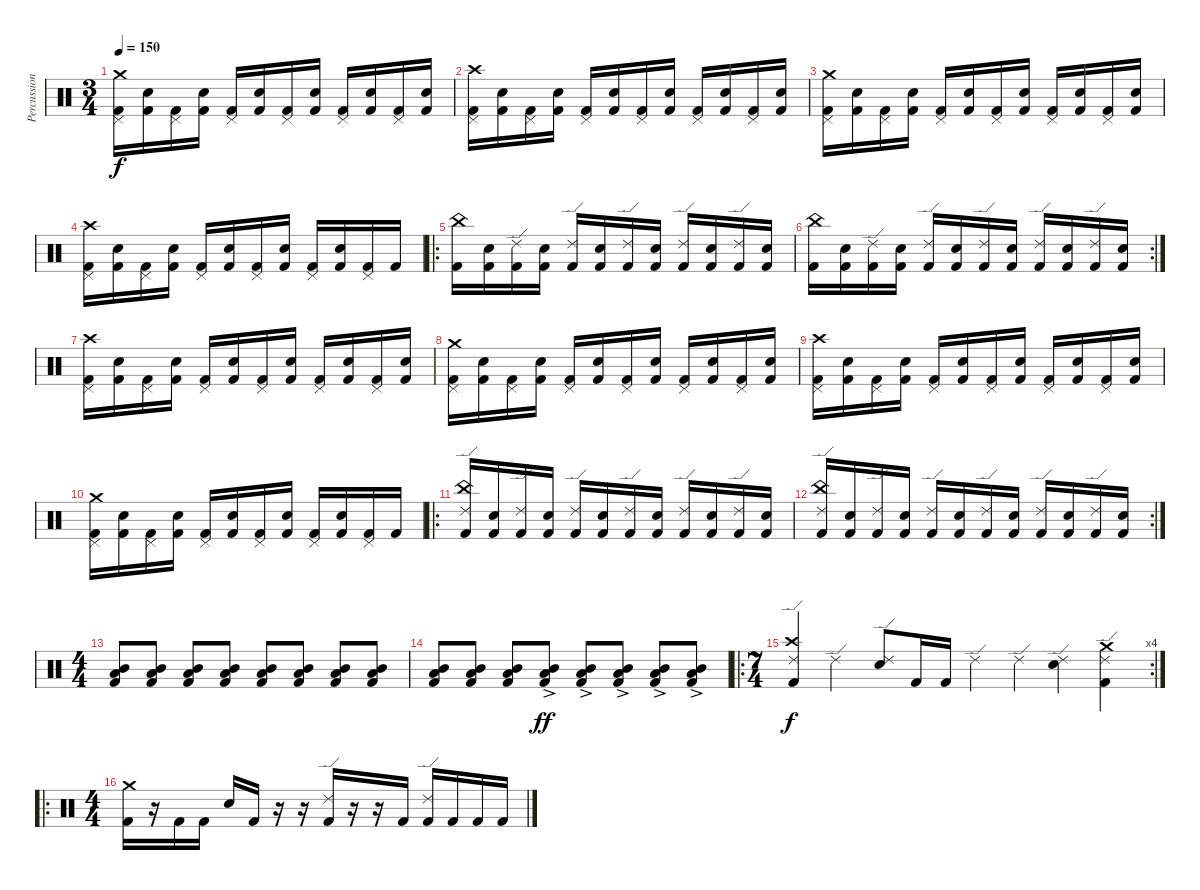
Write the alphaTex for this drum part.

\track ("Percussion" "Percussion") {instrument percussion}
\staff {score}
\articulation defaults
\ts (3 4)
\tempo 150
\clef neutral
\ks c
("Crash medium (hit)" "Pedal Hi-Hat (hit)" "Kick (hit) 2").16{dy f} ("Electric Snare (hit)" "Kick (hit) 2").16 ("Pedal Hi-Hat (hit)" "Kick (hit) 2").16 ("Electric Snare (hit)" "Kick (hit) 2").16 ("Pedal Hi-Hat (hit)" "Kick (hit) 2").16 ("Electric Snare (hit)" "Kick (hit) 2").16 ("Pedal Hi-Hat (hit)" "Kick (hit) 2").16 ("Electric Snare (hit)" "Kick (hit) 2").16 ("Pedal Hi-Hat (hit)" "Kick (hit) 2").16 ("Electric Snare (hit)" "Kick (hit) 2").16 ("Pedal Hi-Hat (hit)" "Kick (hit) 2").16 ("Electric Snare (hit)" "Kick (hit) 2").16 |
("Crash high (hit)" "Pedal Hi-Hat (hit)" "Kick (hit) 2").16 ("Electric Snare (hit)" "Kick (hit) 2").16 ("Pedal Hi-Hat (hit)" "Kick (hit) 2").16 ("Electric Snare (hit)" "Kick (hit) 2").16 ("Pedal Hi-Hat (hit)" "Kick (hit) 2").16 ("Electric Snare (hit)" "Kick (hit) 2").16 ("Pedal Hi-Hat (hit)" "Kick (hit) 2").16 ("Electric Snare (hit)" "Kick (hit) 2").16 ("Pedal Hi-Hat (hit)" "Kick (hit) 2").16 ("Electric Snare (hit)" "Kick (hit) 2").16 ("Pedal Hi-Hat (hit)" "Kick (hit) 2").16 ("Electric Snare (hit)" "Kick (hit) 2").16 |
("Crash medium (hit)" "Pedal Hi-Hat (hit)" "Kick (hit) 2").16 ("Electric Snare (hit)" "Kick (hit) 2").16 ("Pedal Hi-Hat (hit)" "Kick (hit) 2").16 ("Electric Snare (hit)" "Kick (hit) 2").16 ("Pedal Hi-Hat (hit)" "Kick (hit) 2").16 ("Electric Snare (hit)" "Kick (hit) 2").16 ("Pedal Hi-Hat (hit)" "Kick (hit) 2").16 ("Electric Snare (hit)" "Kick (hit) 2").16 ("Pedal Hi-Hat (hit)" "Kick (hit) 2").16 ("Electric Snare (hit)" "Kick (hit) 2").16 ("Pedal Hi-Hat (hit)" "Kick (hit) 2").16 ("Electric Snare (hit)" "Kick (hit) 2").16 |
("Crash high (hit)" "Pedal Hi-Hat (hit)" "Kick (hit) 2").16 ("Electric Snare (hit)" "Kick (hit) 2").16 ("Pedal Hi-Hat (hit)" "Kick (hit) 2").16 ("Electric Snare (hit)" "Kick (hit) 2").16 ("Pedal Hi-Hat (hit)" "Kick (hit) 2").16 ("Electric Snare (hit)" "Kick (hit) 2").16 ("Pedal Hi-Hat (hit)" "Kick (hit) 2").16 ("Electric Snare (hit)" "Kick (hit) 2").16 ("Pedal Hi-Hat (hit)" "Kick (hit) 2").16 ("Electric Snare (hit)" "Kick (hit) 2").16 ("Pedal Hi-Hat (hit)" "Kick (hit) 2").16 "Kick (hit) 2".16 |
\ro
("China (hit)" "Kick (hit) 2").16 ("Electric Snare (hit)" "Kick (hit) 2").16 ("Ride (edge) 2" "Kick (hit) 2").16 ("Electric Snare (hit)" "Kick (hit) 2").16 ("Ride (edge) 2" "Kick (hit) 2").16 ("Electric Snare (hit)" "Kick (hit) 2").16 ("Ride (edge) 2" "Kick (hit) 2").16 ("Electric Snare (hit)" "Kick (hit) 2").16 ("Ride (edge) 2" "Kick (hit) 2").16 ("Electric Snare (hit)" "Kick (hit) 2").16 ("Ride (edge) 2" "Kick (hit) 2").16 ("Electric Snare (hit)" "Kick (hit) 2").16 |
\rc 2
("China (hit)" "Kick (hit) 2").16 ("Electric Snare (hit)" "Kick (hit) 2").16 ("Ride (edge) 2" "Kick (hit) 2").16 ("Electric Snare (hit)" "Kick (hit) 2").16 ("Ride (edge) 2" "Kick (hit) 2").16 ("Electric Snare (hit)" "Kick (hit) 2").16 ("Ride (edge) 2" "Kick (hit) 2").16 ("Electric Snare (hit)" "Kick (hit) 2").16 ("Ride (edge) 2" "Kick (hit) 2").16 ("Electric Snare (hit)" "Kick (hit) 2").16 ("Ride (edge) 2" "Kick (hit) 2").16 ("Electric Snare (hit)" "Kick (hit) 2").16 |
("Crash high (hit)" "Pedal Hi-Hat (hit)" "Kick (hit) 2").16 ("Electric Snare (hit)" "Kick (hit) 2").16 ("Pedal Hi-Hat (hit)" "Kick (hit) 2").16 ("Electric Snare (hit)" "Kick (hit) 2").16 ("Pedal Hi-Hat (hit)" "Kick (hit) 2").16 ("Electric Snare (hit)" "Kick (hit) 2").16 ("Pedal Hi-Hat (hit)" "Kick (hit) 2").16 ("Electric Snare (hit)" "Kick (hit) 2").16 ("Pedal Hi-Hat (hit)" "Kick (hit) 2").16 ("Electric Snare (hit)" "Kick (hit) 2").16 ("Pedal Hi-Hat (hit)" "Kick (hit) 2").16 ("Electric Snare (hit)" "Kick (hit) 2").16 |
("Crash medium (hit)" "Pedal Hi-Hat (hit)" "Kick (hit) 2").16 ("Electric Snare (hit)" "Kick (hit) 2").16 ("Pedal Hi-Hat (hit)" "Kick (hit) 2").16 ("Electric Snare (hit)" "Kick (hit) 2").16 ("Pedal Hi-Hat (hit)" "Kick (hit) 2").16 ("Electric Snare (hit)" "Kick (hit) 2").16 ("Pedal Hi-Hat (hit)" "Kick (hit) 2").16 ("Electric Snare (hit)" "Kick (hit) 2").16 ("Pedal Hi-Hat (hit)" "Kick (hit) 2").16 ("Electric Snare (hit)" "Kick (hit) 2").16 ("Pedal Hi-Hat (hit)" "Kick (hit) 2").16 ("Electric Snare (hit)" "Kick (hit) 2").16 |
("Crash high (hit)" "Pedal Hi-Hat (hit)" "Kick (hit) 2").16 ("Electric Snare (hit)" "Kick (hit) 2").16 ("Pedal Hi-Hat (hit)" "Kick (hit) 2").16 ("Electric Snare (hit)" "Kick (hit) 2").16 ("Pedal Hi-Hat (hit)" "Kick (hit) 2").16 ("Electric Snare (hit)" "Kick (hit) 2").16 ("Pedal Hi-Hat (hit)" "Kick (hit) 2").16 ("Electric Snare (hit)" "Kick (hit) 2").16 ("Pedal Hi-Hat (hit)" "Kick (hit) 2").16 ("Electric Snare (hit)" "Kick (hit) 2").16 ("Pedal Hi-Hat (hit)" "Kick (hit) 2").16 ("Electric Snare (hit)" "Kick (hit) 2").16 |
("Crash medium (hit)" "Pedal Hi-Hat (hit)" "Kick (hit) 2").16 ("Electric Snare (hit)" "Kick (hit) 2").16 ("Pedal Hi-Hat (hit)" "Kick (hit) 2").16 ("Electric Snare (hit)" "Kick (hit) 2").16 ("Pedal Hi-Hat (hit)" "Kick (hit) 2").16 ("Electric Snare (hit)" "Kick (hit) 2").16 ("Pedal Hi-Hat (hit)" "Kick (hit) 2").16 ("Electric Snare (hit)" "Kick (hit) 2").16 ("Pedal Hi-Hat (hit)" "Kick (hit) 2").16 ("Electric Snare (hit)" "Kick (hit) 2").16 ("Pedal Hi-Hat (hit)" "Kick (hit) 2").16 "Kick (hit) 2".16 |
\ro
("China (hit)" "Ride (edge) 2" "Kick (hit) 2").16 ("Electric Snare (hit)" "Kick (hit) 2").16 ("Ride (edge) 2" "Kick (hit) 2").16 ("Electric Snare (hit)" "Kick (hit) 2").16 ("Ride (edge) 2" "Kick (hit) 2").16 ("Electric Snare (hit)" "Kick (hit) 2").16 ("Ride (edge) 2" "Kick (hit) 2").16 ("Electric Snare (hit)" "Kick (hit) 2").16 ("Ride (edge) 2" "Kick (hit) 2").16 ("Electric Snare (hit)" "Kick (hit) 2").16 ("Ride (edge) 2" "Kick (hit) 2").16 ("Electric Snare (hit)" "Kick (hit) 2").16 |
\rc 2
("China (hit)" "Ride (edge) 2" "Kick (hit) 2").16 ("Electric Snare (hit)" "Kick (hit) 2").16 ("Ride (edge) 2" "Kick (hit) 2").16 ("Electric Snare (hit)" "Kick (hit) 2").16 ("Ride (edge) 2" "Kick (hit) 2").16 ("Electric Snare (hit)" "Kick (hit) 2").16 ("Ride (edge) 2" "Kick (hit) 2").16 ("Electric Snare (hit)" "Kick (hit) 2").16 ("Ride (edge) 2" "Kick (hit) 2").16 ("Electric Snare (hit)" "Kick (hit) 2").16 ("Ride (edge) 2" "Kick (hit) 2").16 ("Electric Snare (hit)" "Kick (hit) 2").16 |
\ts (4 4)
("Mid Tom (hit)" "Low Tom (hit)" "Kick (hit) 2").8 ("Mid Tom (hit)" "Low Tom (hit)" "Kick (hit) 2").8 ("Mid Tom (hit)" "Low Tom (hit)" "Kick (hit) 2").8 ("Mid Tom (hit)" "Low Tom (hit)" "Kick (hit) 2").8 ("Mid Tom (hit)" "Low Tom (hit)" "Kick (hit) 2").8 ("Mid Tom (hit)" "Low Tom (hit)" "Kick (hit) 2").8 ("Mid Tom (hit)" "Low Tom (hit)" "Kick (hit) 2").8 ("Mid Tom (hit)" "Low Tom (hit)" "Kick (hit) 2").8 |
("Mid Tom (hit)" "Low Tom (hit)" "Kick (hit) 2").8 ("Mid Tom (hit)" "Low Tom (hit)" "Kick (hit) 2").8 ("Mid Tom (hit)" "Low Tom (hit)" "Kick (hit) 2").8 ("Mid Tom (hit)" "Low Tom (hit)"{ac} "Kick (hit) 2").8{dy ff} ("Mid Tom (hit)" "Low Tom (hit)"{ac} "Kick (hit) 2").8 ("Mid Tom (hit)" "Low Tom (hit)"{ac} "Kick (hit) 2").8 ("Mid Tom (hit)" "Low Tom (hit)"{ac} "Kick (hit) 2").8 ("Mid Tom (hit)" "Low Tom (hit)"{ac} "Kick (hit) 2").8 |
\ro
\rc 4
\ts (7 4)
("Crash high (hit)" "Ride (edge) 2" "Kick (hit) 2").4{dy f} "Ride (edge) 2".4 ("Ride (edge) 2" "Electric Snare (hit)").8 "Kick (hit) 2".16 "Kick (hit) 2".16 "Ride (edge) 2".4 "Ride (edge) 2".4 ("Ride (edge) 2" "Electric Snare (hit)").4 ("Ride (edge) 2" "Crash medium (hit)" "Kick (hit) 2").4 |
\ro
\ts (4 4)
("Crash medium (hit)" "Kick (hit) 2").16 r.16 "Kick (hit) 2".16 "Kick (hit) 2".16 "Electric Snare (hit)".16 "Kick (hit) 2".16 r.16 r.16 ("Ride (edge) 2" "Kick (hit) 2").16 r.16 r.16 "Kick (hit) 2".16 ("Ride (edge) 2" "Kick (hit) 2").16 "Kick (hit) 2".16 "Kick (hit) 2".16 "Kick (hit) 2".16
